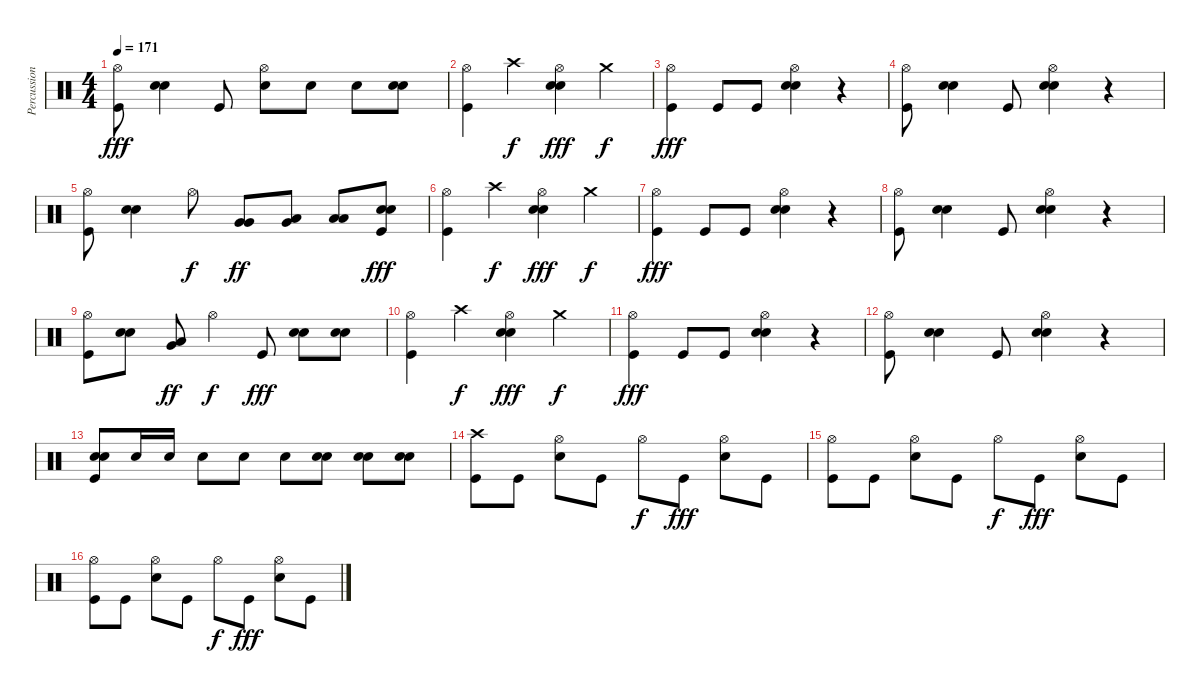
\track ("Percussion" "Percussion") {instrument percussion}
\staff {score}
\articulation defaults
\ts (4 4)
\tempo 171
\clef neutral
\ks c
("Hi-Hat (open)" "Kick (hit)").8{dy fff} ("Electric Snare (hit)" "Snare (hit) 2").4 "Kick (hit)".8 ("Hi-Hat (open)" "Snare (hit) 2").8 "Snare (hit) 2".8 "Snare (hit) 2".8 ("Electric Snare (hit)" "Snare (hit) 2").8 |
("Hi-Hat (open)" "Kick (hit)").4 "Crash high (hit)".4{dy f} ("Hi-Hat (open)" "Electric Snare (hit)" "Snare (hit) 2").4{dy fff} "Crash medium (hit)".4{dy f} |
("Hi-Hat (open)" "Kick (hit)").4{dy fff} "Kick (hit)".8 "Kick (hit)".8 ("Hi-Hat (open)" "Electric Snare (hit)" "Snare (hit) 2").4 r.4 |
("Hi-Hat (open)" "Kick (hit)").8 ("Electric Snare (hit)" "Snare (hit) 2").4 "Kick (hit)".8 ("Hi-Hat (open)" "Electric Snare (hit)" "Snare (hit) 2").4 r.4 |
("Hi-Hat (open)" "Kick (hit)").8 ("Electric Snare (hit)" "Snare (hit) 2").4 "Hi-Hat (open)".8{dy f} ("Very Low Tom (hit)" "Very Low Tom (hit)").8{dy ff} ("Low Floor Tom (hit)" "Very Low Tom (hit)").8 ("Low Floor Tom (hit)" "Low Floor Tom (hit)").8 ("Electric Snare (hit)" "Snare (hit) 2" "Kick (hit)").8{dy fff} |
("Hi-Hat (open)" "Kick (hit)").4 "Crash high (hit)".4{dy f} ("Hi-Hat (open)" "Electric Snare (hit)" "Snare (hit) 2").4{dy fff} "Crash medium (hit)".4{dy f} |
("Hi-Hat (open)" "Kick (hit)").4{dy fff} "Kick (hit)".8 "Kick (hit)".8 ("Hi-Hat (open)" "Electric Snare (hit)" "Snare (hit) 2").4 r.4 |
("Hi-Hat (open)" "Kick (hit)").8 ("Electric Snare (hit)" "Snare (hit) 2").4 "Kick (hit)".8 ("Hi-Hat (open)" "Electric Snare (hit)" "Snare (hit) 2").4 r.4 |
("Hi-Hat (open)" "Kick (hit)").8 ("Electric Snare (hit)" "Snare (hit) 2").8 ("Low Tom (hit)" "Very Low Tom (hit)").8{dy ff} "Hi-Hat (open)".4{dy f} "Kick (hit)".8{dy fff} ("Electric Snare (hit)" "Snare (hit) 2").8 ("Electric Snare (hit)" "Snare (hit) 2").8 |
("Hi-Hat (open)" "Kick (hit)").4 "Crash high (hit)".4{dy f} ("Hi-Hat (open)" "Electric Snare (hit)" "Snare (hit) 2").4{dy fff} "Crash medium (hit)".4{dy f} |
("Hi-Hat (open)" "Kick (hit)").4{dy fff} "Kick (hit)".8 "Kick (hit)".8 ("Hi-Hat (open)" "Electric Snare (hit)" "Snare (hit) 2").4 r.4 |
("Hi-Hat (open)" "Kick (hit)").8 ("Electric Snare (hit)" "Snare (hit) 2").4 "Kick (hit)".8 ("Hi-Hat (open)" "Electric Snare (hit)" "Snare (hit) 2").4 r.4 |
("Electric Snare (hit)" "Snare (hit) 2" "Kick (hit)").8 "Snare (hit) 2".16 "Snare (hit) 2".16 "Snare (hit) 2".8 "Snare (hit) 2".8 "Snare (hit) 2".8 ("Electric Snare (hit)" "Snare (hit) 2").8 ("Electric Snare (hit)" "Snare (hit) 2").8 ("Electric Snare (hit)" "Snare (hit) 2").8 |
("Crash high (hit)" "Kick (hit)").8 "Kick (hit)".8 ("Hi-Hat (open)" "Snare (hit) 2").8 "Kick (hit)".8 "Hi-Hat (open)".8{dy f} "Kick (hit)".8{dy fff} ("Hi-Hat (open)" "Snare (hit) 2").8 "Kick (hit)".8 |
("Hi-Hat (open)" "Kick (hit)").8 "Kick (hit)".8 ("Hi-Hat (open)" "Snare (hit) 2").8 "Kick (hit)".8 "Hi-Hat (open)".8{dy f} "Kick (hit)".8{dy fff} ("Hi-Hat (open)" "Snare (hit) 2").8 "Kick (hit)".8 |
("Hi-Hat (open)" "Kick (hit)").8 "Kick (hit)".8 ("Hi-Hat (open)" "Snare (hit) 2").8 "Kick (hit)".8 "Hi-Hat (open)".8{dy f} "Kick (hit)".8{dy fff} ("Hi-Hat (open)" "Snare (hit) 2").8 "Kick (hit)".8
